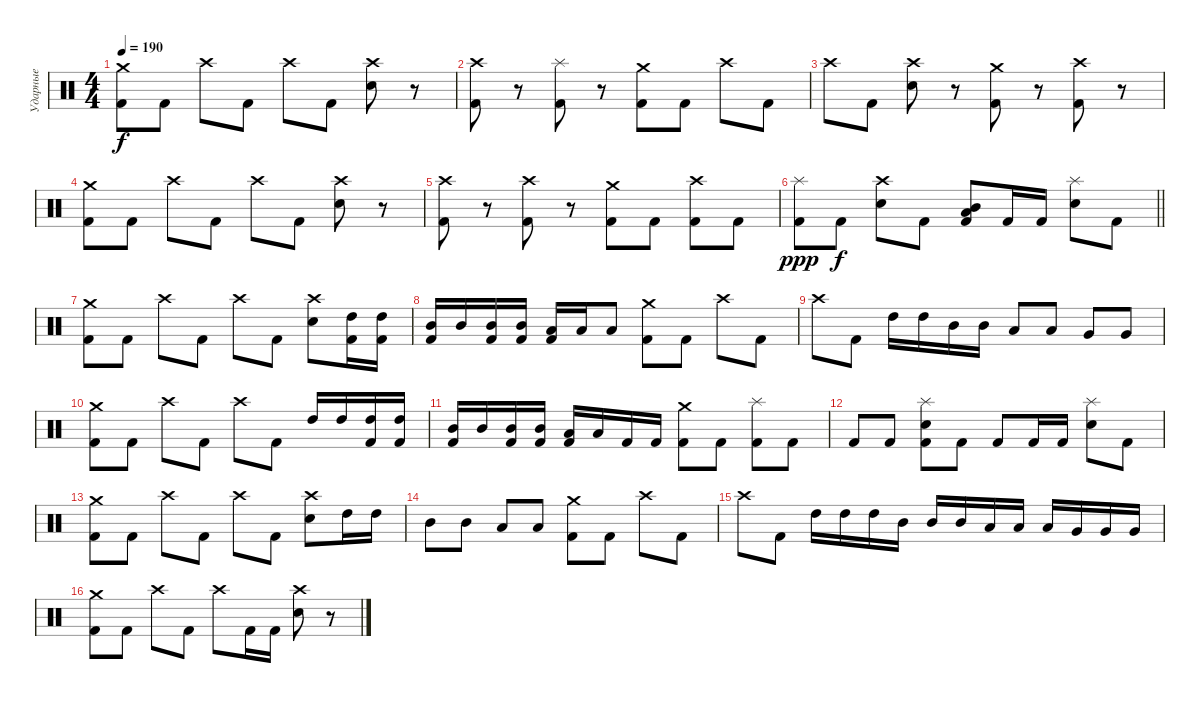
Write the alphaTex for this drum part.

\track ("Ударные" "Ударные") {instrument percussion}
\staff {score}
\articulation defaults
\ts (4 4)
\tempo 190
\clef neutral
\ks c
("Crash medium (hit)" "Kick (hit) 2").8{dy f} "Kick (hit) 2".8 "Crash high (hit)".8 "Kick (hit) 2".8 "Crash high (hit)".8 "Kick (hit) 2".8 ("Crash high (hit)" "Electric Snare (hit)").8 r.8 |
("Crash high (hit)" "Kick (hit) 2").8 r.8 ("Splash (hit)" "Kick (hit) 2").8 r.8 ("Crash medium (hit)" "Kick (hit) 2").8 "Kick (hit) 2".8 "Crash high (hit)".8 "Kick (hit) 2".8 |
"Crash high (hit)".8 "Kick (hit) 2".8 ("Crash high (hit)" "Electric Snare (hit)").8 r.8 ("Crash medium (hit)" "Kick (hit) 2").8 r.8 ("Crash high (hit)" "Kick (hit) 2").8 r.8 |
("Crash medium (hit)" "Kick (hit) 2").8 "Kick (hit) 2".8 "Crash high (hit)".8 "Kick (hit) 2".8 "Crash high (hit)".8 "Kick (hit) 2".8 ("Crash high (hit)" "Electric Snare (hit)").8 r.8 |
("Crash high (hit)" "Kick (hit) 2").8 r.8 ("Crash high (hit)" "Kick (hit) 2").8 r.8 ("Crash medium (hit)" "Kick (hit) 2").8 "Kick (hit) 2".8 ("Crash high (hit)" "Kick (hit) 2").8 "Kick (hit) 2".8 |
\barLineRight lightlight
("Splash (hit)" "Kick (hit) 2").8{dy ppp} "Kick (hit) 2".8{dy f} ("Crash high (hit)" "Electric Snare (hit)").8 "Kick (hit) 2".8 ("Low Tom (hit)" "Mid Tom (hit)" "Kick (hit) 2").8 "Kick (hit) 2".16 "Kick (hit) 2".16 ("Splash (hit)" "Electric Snare (hit)").8 "Kick (hit) 2".8 |
("Crash medium (hit)" "Kick (hit) 2").8 "Kick (hit) 2".8 "Crash high (hit)".8 "Kick (hit) 2".8 "Crash high (hit)".8 "Kick (hit) 2".8 ("Crash high (hit)" "Electric Snare (hit)").8 ("High Tom (hit)" "Kick (hit) 2").16 ("High Tom (hit)" "Kick (hit) 2").16 |
("Mid Tom (hit)" "Kick (hit) 2").16 "Mid Tom (hit)".16 ("Mid Tom (hit)" "Kick (hit) 2").16 ("Mid Tom (hit)" "Kick (hit) 2").16 ("Low Tom (hit)" "Kick (hit) 2").16 "Low Tom (hit)".16 "Low Tom (hit)".8 ("Crash medium (hit)" "Kick (hit) 2").8 "Kick (hit) 2".8 "Crash high (hit)".8 "Kick (hit) 2".8 |
"Crash high (hit)".8 "Kick (hit) 2".8 "High Tom (hit)".16 "High Tom (hit)".16 "Mid Tom (hit)".16 "Mid Tom (hit)".16 "Low Tom (hit)".8 "Low Tom (hit)".8 "Very Low Tom (hit)".8 "Very Low Tom (hit)".8 |
("Crash medium (hit)" "Kick (hit) 2").8 "Kick (hit) 2".8 "Crash high (hit)".8 "Kick (hit) 2".8 "Crash high (hit)".8 "Kick (hit) 2".8 "High Tom (hit)".16 "High Tom (hit)".16 ("High Tom (hit)" "Kick (hit) 2").16 ("High Tom (hit)" "Kick (hit) 2").16 |
("Mid Tom (hit)" "Kick (hit) 2").16 "Mid Tom (hit)".16 ("Mid Tom (hit)" "Kick (hit) 2").16 ("Mid Tom (hit)" "Kick (hit) 2").16 ("Low Tom (hit)" "Kick (hit) 2").16 "Low Tom (hit)".16 "Kick (hit) 2".16 "Kick (hit) 2".16 ("Crash medium (hit)" "Kick (hit) 2").8 "Kick (hit) 2".8 ("Splash (hit)" "Kick (hit) 2").8 "Kick (hit) 2".8 |
"Kick (hit) 2".8 "Kick (hit) 2".8 ("Splash (hit)" "Electric Snare (hit)" "Kick (hit) 2").8 "Kick (hit) 2".8 "Kick (hit) 2".8 "Kick (hit) 2".16 "Kick (hit) 2".16 ("Splash (hit)" "Electric Snare (hit)").8 "Kick (hit) 2".8 |
("Crash medium (hit)" "Kick (hit) 2").8 "Kick (hit) 2".8 "Crash high (hit)".8 "Kick (hit) 2".8 "Crash high (hit)".8 "Kick (hit) 2".8 ("Crash high (hit)" "Electric Snare (hit)").8 "High Tom (hit)".16 "High Tom (hit)".16 |
"Mid Tom (hit)".8 "Mid Tom (hit)".8 "Low Tom (hit)".8 "Low Tom (hit)".8 ("Crash medium (hit)" "Kick (hit) 2").8 "Kick (hit) 2".8 "Crash high (hit)".8 "Kick (hit) 2".8 |
"Crash high (hit)".8 "Kick (hit) 2".8 "High Tom (hit)".16 "High Tom (hit)".16 "High Tom (hit)".16 "Mid Tom (hit)".16 "Mid Tom (hit)".16 "Mid Tom (hit)".16 "Low Tom (hit)".16 "Low Tom (hit)".16 "Low Tom (hit)".16 "Very Low Tom (hit)".16 "Very Low Tom (hit)".16 "Very Low Tom (hit)".16 |
("Crash medium (hit)" "Kick (hit) 2").8 "Kick (hit) 2".8 "Crash high (hit)".8 "Kick (hit) 2".8 "Crash high (hit)".8 "Kick (hit) 2".16 "Kick (hit) 2".16 ("Crash high (hit)" "Electric Snare (hit)").8 r.8
